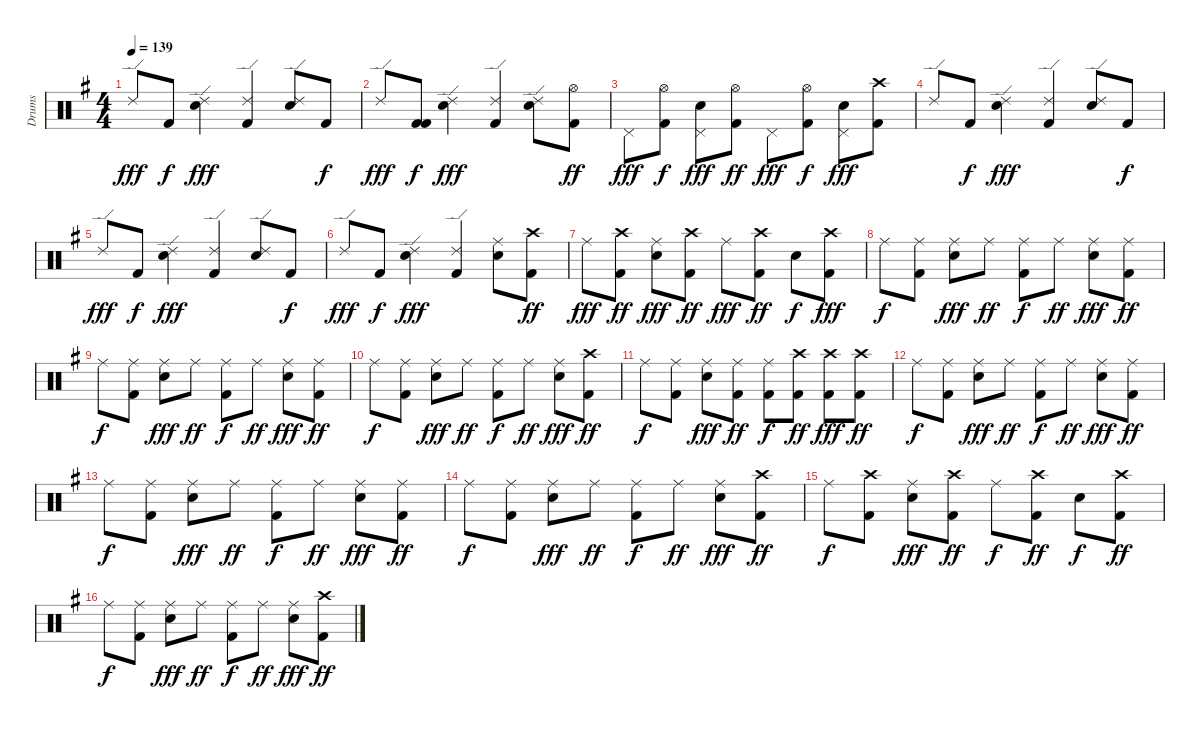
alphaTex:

\track ("Drums" "Drums") {instrument percussion}
\staff {score}
\articulation defaults
\ts (4 4)
\tempo 139
\clef neutral
\ks g "Ride (edge) 2".8{dy fff} "Kick (hit) 2".8{dy f}
("Ride (edge) 2" "Snare (hit) 2").4{dy fff} ("Ride (edge) 2" "Kick (hit) 2").4 ("Ride (edge) 2" "Snare (hit) 2").8 "Kick (hit) 2".8{dy f} |
"Ride (edge) 2".8{dy fff} ("Kick (hit) 2" "Kick (hit) 2").8{dy f} ("Ride (edge) 2" "Snare (hit) 2").4{dy fff} ("Ride (edge) 2" "Kick (hit) 2").4 ("Ride (edge) 2" "Snare (hit) 2").8 ("Hi-Hat (open)" "Kick (hit) 2").8{dy ff} |
"Pedal Hi-Hat (hit)".8{dy fff} ("Hi-Hat (open)" "Kick (hit) 2").8{dy f} ("Pedal Hi-Hat (hit)" "Snare (hit) 2").8{dy fff} ("Hi-Hat (open)" "Kick (hit) 2").8{dy ff} "Pedal Hi-Hat (hit)".8{dy fff} ("Hi-Hat (open)" "Kick (hit) 2").8{dy f} ("Pedal Hi-Hat (hit)" "Snare (hit) 2").8{dy fff} ("Crash high (hit)" "Kick (hit) 2").8 |
"Ride (edge) 2".8 "Kick (hit) 2".8{dy f} ("Ride (edge) 2" "Snare (hit) 2").4{dy fff} ("Ride (edge) 2" "Kick (hit) 2").4 ("Ride (edge) 2" "Snare (hit) 2").8 "Kick (hit) 2".8{dy f} |
"Ride (edge) 2".8{dy fff} "Kick (hit) 2".8{dy f} ("Ride (edge) 2" "Snare (hit) 2").4{dy fff} ("Ride (edge) 2" "Kick (hit) 2").4 ("Ride (edge) 2" "Snare (hit) 2").8 "Kick (hit) 2".8{dy f} |
"Ride (edge) 2".8{dy fff} "Kick (hit) 2".8{dy f} ("Ride (edge) 2" "Snare (hit) 2").4{dy fff} ("Ride (edge) 2" "Kick (hit) 2").4 ("Ride (middle)" "Snare (hit) 2").8 ("Crash high (hit)" "Kick (hit) 2").8{dy ff} |
"Ride (middle)".8{dy fff} ("Crash high (hit)" "Kick (hit) 2").8{dy ff} ("Ride (middle)" "Snare (hit) 2").8{dy fff} ("Crash high (hit)" "Kick (hit) 2").8{dy ff} "Ride (middle)".8{dy fff} ("Crash high (hit)" "Kick (hit) 2").8{dy ff} "Snare (hit) 2".8{dy f} ("Crash high (hit)" "Kick (hit) 2").8{dy fff} |
"Ride (middle)".8{dy f} ("Ride (middle)" "Kick (hit) 2").8 ("Ride (middle)" "Snare (hit) 2").8{dy fff} "Ride (middle)".8{dy ff} ("Ride (middle)" "Kick (hit) 2").8{dy f} "Ride (middle)".8{dy ff} ("Ride (middle)" "Snare (hit) 2").8{dy fff} ("Ride (middle)" "Kick (hit) 2").8{dy ff} |
"Ride (middle)".8{dy f} ("Ride (middle)" "Kick (hit) 2").8 ("Ride (middle)" "Snare (hit) 2").8{dy fff} "Ride (middle)".8{dy ff} ("Ride (middle)" "Kick (hit) 2").8{dy f} "Ride (middle)".8{dy ff} ("Ride (middle)" "Snare (hit) 2").8{dy fff} ("Ride (middle)" "Kick (hit) 2").8{dy ff} |
"Ride (middle)".8{dy f} ("Ride (middle)" "Kick (hit) 2").8 ("Ride (middle)" "Snare (hit) 2").8{dy fff} "Ride (middle)".8{dy ff} ("Ride (middle)" "Kick (hit) 2").8{dy f} "Ride (middle)".8{dy ff} ("Ride (middle)" "Snare (hit) 2").8{dy fff} ("Crash high (hit)" "Kick (hit) 2").8{dy ff} |
"Ride (middle)".8{dy f} ("Ride (middle)" "Kick (hit) 2").8 ("Ride (middle)" "Snare (hit) 2").8{dy fff} ("Ride (middle)" "Kick (hit) 2").8{dy ff} ("Ride (middle)" "Kick (hit) 2").8{dy f} ("Crash high (hit)" "Kick (hit) 2").8{dy ff} ("Crash high (hit)" "Kick (hit) 2").8{dy fff} ("Crash high (hit)" "Kick (hit) 2").8{dy ff} |
"Ride (middle)".8{dy f} ("Ride (middle)" "Kick (hit) 2").8 ("Ride (middle)" "Snare (hit) 2").8{dy fff} "Ride (middle)".8{dy ff} ("Ride (middle)" "Kick (hit) 2").8{dy f} "Ride (middle)".8{dy ff} ("Ride (middle)" "Snare (hit) 2").8{dy fff} ("Ride (middle)" "Kick (hit) 2").8{dy ff} |
"Ride (middle)".8{dy f} ("Ride (middle)" "Kick (hit) 2").8 ("Ride (middle)" "Snare (hit) 2").8{dy fff} "Ride (middle)".8{dy ff} ("Ride (middle)" "Kick (hit) 2").8{dy f} "Ride (middle)".8{dy ff} ("Ride (middle)" "Snare (hit) 2").8{dy fff} ("Ride (middle)" "Kick (hit) 2").8{dy ff} |
"Ride (middle)".8{dy f} ("Ride (middle)" "Kick (hit) 2").8 ("Ride (middle)" "Snare (hit) 2").8{dy fff} "Ride (middle)".8{dy ff} ("Ride (middle)" "Kick (hit) 2").8{dy f} "Ride (middle)".8{dy ff} ("Ride (middle)" "Snare (hit) 2").8{dy fff} ("Crash high (hit)" "Kick (hit) 2").8{dy ff} |
"Ride (middle)".8{dy f} ("Crash high (hit)" "Kick (hit) 2").8 ("Ride (middle)" "Snare (hit) 2").8{dy fff} ("Crash high (hit)" "Kick (hit) 2").8{dy ff} "Ride (middle)".8{dy f} ("Crash high (hit)" "Kick (hit) 2").8{dy ff} "Snare (hit) 2".8{dy f} ("Crash high (hit)" "Kick (hit) 2").8{dy ff} |
"Ride (middle)".8{dy f} ("Ride (middle)" "Kick (hit) 2").8 ("Ride (middle)" "Snare (hit) 2").8{dy fff} "Ride (middle)".8{dy ff} ("Ride (middle)" "Kick (hit) 2").8{dy f} "Ride (middle)".8{dy ff} ("Ride (middle)" "Snare (hit) 2").8{dy fff} ("Crash high (hit)" "Kick (hit) 2").8{dy ff}
